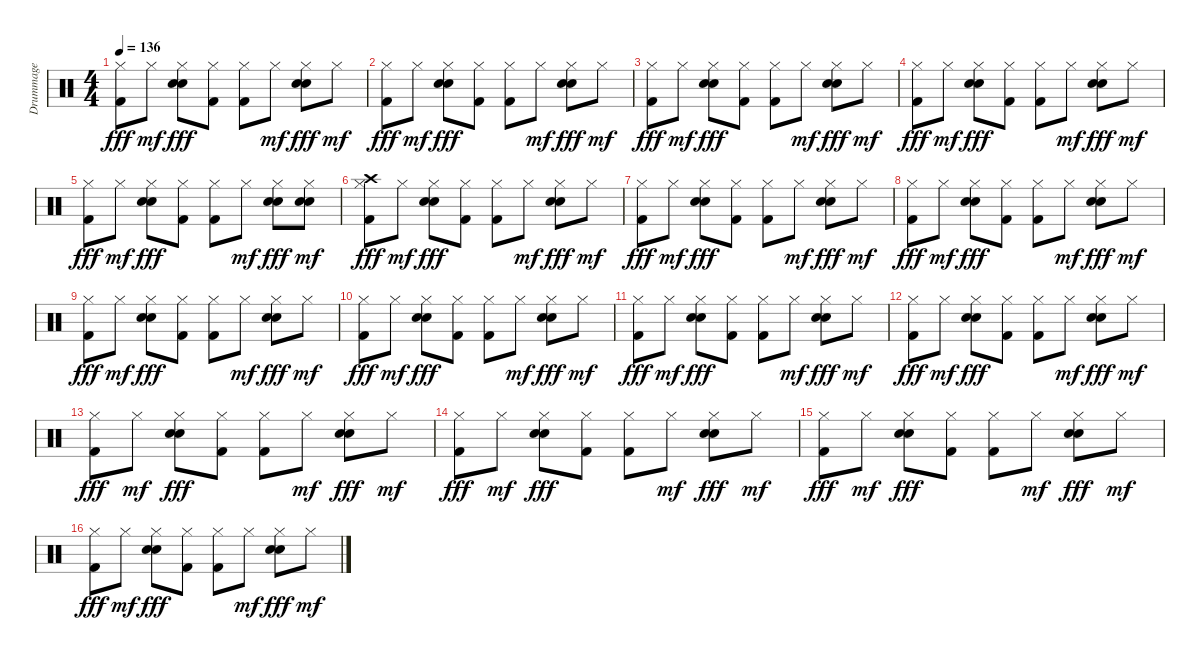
\track ("Drummage" "Drummage") {instrument percussion}
\staff {score}
\articulation defaults
\ts (4 4)
\tempo 136
\clef neutral
\ks c
("Hi-Hat (closed)" "Kick (hit) 2").8{dy fff} "Hi-Hat (closed)".8{dy mf} ("Hi-Hat (closed)" "Snare (hit) 2" "Electric Snare (hit)").8{dy fff} ("Hi-Hat (closed)" "Kick (hit) 2").8 ("Hi-Hat (closed)" "Kick (hit) 2").8 "Hi-Hat (closed)".8{dy mf} ("Hi-Hat (closed)" "Electric Snare (hit)" "Snare (hit) 2").8{dy fff} "Hi-Hat (closed)".8{dy mf} |
("Hi-Hat (closed)" "Kick (hit) 2").8{dy fff} "Hi-Hat (closed)".8{dy mf} ("Hi-Hat (closed)" "Snare (hit) 2" "Electric Snare (hit)").8{dy fff} ("Hi-Hat (closed)" "Kick (hit) 2").8 ("Hi-Hat (closed)" "Kick (hit) 2").8 "Hi-Hat (closed)".8{dy mf} ("Hi-Hat (closed)" "Electric Snare (hit)" "Snare (hit) 2").8{dy fff} "Hi-Hat (closed)".8{dy mf} |
("Hi-Hat (closed)" "Kick (hit) 2").8{dy fff} "Hi-Hat (closed)".8{dy mf} ("Hi-Hat (closed)" "Snare (hit) 2" "Electric Snare (hit)").8{dy fff} ("Hi-Hat (closed)" "Kick (hit) 2").8 ("Hi-Hat (closed)" "Kick (hit) 2").8 "Hi-Hat (closed)".8{dy mf} ("Hi-Hat (closed)" "Electric Snare (hit)" "Snare (hit) 2").8{dy fff} "Hi-Hat (closed)".8{dy mf} |
("Hi-Hat (closed)" "Kick (hit) 2").8{dy fff} "Hi-Hat (closed)".8{dy mf} ("Hi-Hat (closed)" "Snare (hit) 2" "Electric Snare (hit)").8{dy fff} ("Hi-Hat (closed)" "Kick (hit) 2").8 ("Hi-Hat (closed)" "Kick (hit) 2").8 "Hi-Hat (closed)".8{dy mf} ("Hi-Hat (closed)" "Electric Snare (hit)" "Snare (hit) 2").8{dy fff} "Hi-Hat (closed)".8{dy mf} |
("Hi-Hat (closed)" "Kick (hit) 2").8{dy fff} "Hi-Hat (closed)".8{dy mf} ("Hi-Hat (closed)" "Snare (hit) 2" "Electric Snare (hit)").8{dy fff} ("Hi-Hat (closed)" "Kick (hit) 2").8 ("Hi-Hat (closed)" "Kick (hit) 2").8 "Hi-Hat (closed)".8{dy mf} ("Hi-Hat (closed)" "Electric Snare (hit)" "Snare (hit) 2").8{dy fff} ("Snare (hit) 2" "Electric Snare (hit)" "Hi-Hat (closed)").8{dy mf} |
("Crash high (hit)" "Hi-Hat (closed)" "Kick (hit) 2").8{dy fff} "Hi-Hat (closed)".8{dy mf} ("Hi-Hat (closed)" "Snare (hit) 2" "Electric Snare (hit)").8{dy fff} ("Hi-Hat (closed)" "Kick (hit) 2").8 ("Hi-Hat (closed)" "Kick (hit) 2").8 "Hi-Hat (closed)".8{dy mf} ("Hi-Hat (closed)" "Electric Snare (hit)" "Snare (hit) 2").8{dy fff} "Hi-Hat (closed)".8{dy mf} |
("Hi-Hat (closed)" "Kick (hit) 2").8{dy fff} "Hi-Hat (closed)".8{dy mf} ("Hi-Hat (closed)" "Snare (hit) 2" "Electric Snare (hit)").8{dy fff} ("Hi-Hat (closed)" "Kick (hit) 2").8 ("Hi-Hat (closed)" "Kick (hit) 2").8 "Hi-Hat (closed)".8{dy mf} ("Hi-Hat (closed)" "Electric Snare (hit)" "Snare (hit) 2").8{dy fff} "Hi-Hat (closed)".8{dy mf} |
("Hi-Hat (closed)" "Kick (hit) 2").8{dy fff} "Hi-Hat (closed)".8{dy mf} ("Hi-Hat (closed)" "Snare (hit) 2" "Electric Snare (hit)").8{dy fff} ("Hi-Hat (closed)" "Kick (hit) 2").8 ("Hi-Hat (closed)" "Kick (hit) 2").8 "Hi-Hat (closed)".8{dy mf} ("Hi-Hat (closed)" "Electric Snare (hit)" "Snare (hit) 2").8{dy fff} "Hi-Hat (closed)".8{dy mf} |
("Hi-Hat (closed)" "Kick (hit) 2").8{dy fff} "Hi-Hat (closed)".8{dy mf} ("Hi-Hat (closed)" "Snare (hit) 2" "Electric Snare (hit)").8{dy fff} ("Hi-Hat (closed)" "Kick (hit) 2").8 ("Hi-Hat (closed)" "Kick (hit) 2").8 "Hi-Hat (closed)".8{dy mf} ("Hi-Hat (closed)" "Electric Snare (hit)" "Snare (hit) 2").8{dy fff} "Hi-Hat (closed)".8{dy mf} |
("Hi-Hat (closed)" "Kick (hit) 2").8{dy fff} "Hi-Hat (closed)".8{dy mf} ("Hi-Hat (closed)" "Snare (hit) 2" "Electric Snare (hit)").8{dy fff} ("Hi-Hat (closed)" "Kick (hit) 2").8 ("Hi-Hat (closed)" "Kick (hit) 2").8 "Hi-Hat (closed)".8{dy mf} ("Hi-Hat (closed)" "Electric Snare (hit)" "Snare (hit) 2").8{dy fff} "Hi-Hat (closed)".8{dy mf} |
("Hi-Hat (closed)" "Kick (hit) 2").8{dy fff} "Hi-Hat (closed)".8{dy mf} ("Hi-Hat (closed)" "Snare (hit) 2" "Electric Snare (hit)").8{dy fff} ("Hi-Hat (closed)" "Kick (hit) 2").8 ("Hi-Hat (closed)" "Kick (hit) 2").8 "Hi-Hat (closed)".8{dy mf} ("Hi-Hat (closed)" "Electric Snare (hit)" "Snare (hit) 2").8{dy fff} "Hi-Hat (closed)".8{dy mf} |
("Hi-Hat (closed)" "Kick (hit) 2").8{dy fff} "Hi-Hat (closed)".8{dy mf} ("Hi-Hat (closed)" "Snare (hit) 2" "Electric Snare (hit)").8{dy fff} ("Hi-Hat (closed)" "Kick (hit) 2").8 ("Hi-Hat (closed)" "Kick (hit) 2").8 "Hi-Hat (closed)".8{dy mf} ("Hi-Hat (closed)" "Electric Snare (hit)" "Snare (hit) 2").8{dy fff} "Hi-Hat (closed)".8{dy mf} |
("Hi-Hat (closed)" "Kick (hit) 2").8{dy fff} "Hi-Hat (closed)".8{dy mf} ("Hi-Hat (closed)" "Snare (hit) 2" "Electric Snare (hit)").8{dy fff} ("Hi-Hat (closed)" "Kick (hit) 2").8 ("Hi-Hat (closed)" "Kick (hit) 2").8 "Hi-Hat (closed)".8{dy mf} ("Hi-Hat (closed)" "Electric Snare (hit)" "Snare (hit) 2").8{dy fff} "Hi-Hat (closed)".8{dy mf} |
("Hi-Hat (closed)" "Kick (hit) 2").8{dy fff} "Hi-Hat (closed)".8{dy mf} ("Hi-Hat (closed)" "Snare (hit) 2" "Electric Snare (hit)").8{dy fff} ("Hi-Hat (closed)" "Kick (hit) 2").8 ("Hi-Hat (closed)" "Kick (hit) 2").8 "Hi-Hat (closed)".8{dy mf} ("Hi-Hat (closed)" "Electric Snare (hit)" "Snare (hit) 2").8{dy fff} "Hi-Hat (closed)".8{dy mf} |
("Hi-Hat (closed)" "Kick (hit) 2").8{dy fff} "Hi-Hat (closed)".8{dy mf} ("Hi-Hat (closed)" "Snare (hit) 2" "Electric Snare (hit)").8{dy fff} ("Hi-Hat (closed)" "Kick (hit) 2").8 ("Hi-Hat (closed)" "Kick (hit) 2").8 "Hi-Hat (closed)".8{dy mf} ("Hi-Hat (closed)" "Electric Snare (hit)" "Snare (hit) 2").8{dy fff} "Hi-Hat (closed)".8{dy mf} |
("Hi-Hat (closed)" "Kick (hit) 2").8{dy fff} "Hi-Hat (closed)".8{dy mf} ("Hi-Hat (closed)" "Snare (hit) 2" "Electric Snare (hit)").8{dy fff} ("Hi-Hat (closed)" "Kick (hit) 2").8 ("Hi-Hat (closed)" "Kick (hit) 2").8 "Hi-Hat (closed)".8{dy mf} ("Hi-Hat (closed)" "Electric Snare (hit)" "Snare (hit) 2").8{dy fff} "Hi-Hat (closed)".8{dy mf}
